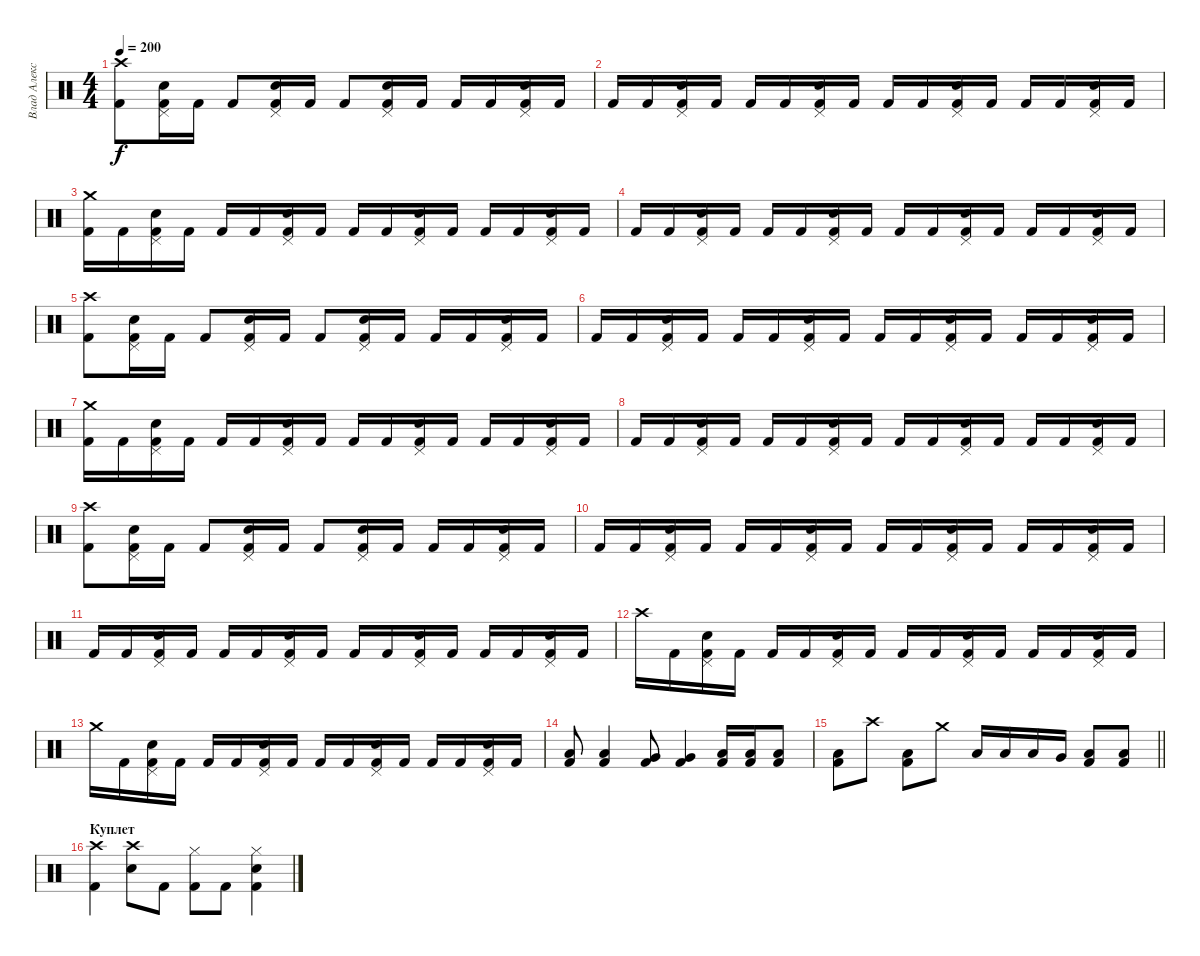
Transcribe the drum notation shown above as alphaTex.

\track ("Влад Алексеенко" "Влад Алекс") {instrument percussion}
\staff {score}
\articulation defaults
\ts (4 4)
\tempo 200
\clef neutral
\ks c
("Kick (hit) 2" "Crash high (hit)").8{dy f} ("Kick (hit) 2" "Electric Snare (hit)" "Pedal Hi-Hat (hit)").16 "Kick (hit) 2".16 "Kick (hit) 2".8 ("Kick (hit) 2" "Electric Snare (hit)" "Pedal Hi-Hat (hit)").16 "Kick (hit) 2".16 "Kick (hit) 2".8 ("Kick (hit) 2" "Electric Snare (hit)" "Pedal Hi-Hat (hit)").16 "Kick (hit) 2".16 "Kick (hit) 2".16 "Kick (hit) 2".16 ("Kick (hit) 2" "Electric Snare (hit)" "Pedal Hi-Hat (hit)").16 "Kick (hit) 2".16 |
"Kick (hit) 2".16 "Kick (hit) 2".16 ("Kick (hit) 2" "Electric Snare (hit)" "Pedal Hi-Hat (hit)").16 "Kick (hit) 2".16 "Kick (hit) 2".16 "Kick (hit) 2".16 ("Kick (hit) 2" "Electric Snare (hit)" "Pedal Hi-Hat (hit)").16 "Kick (hit) 2".16 "Kick (hit) 2".16 "Kick (hit) 2".16 ("Kick (hit) 2" "Electric Snare (hit)" "Pedal Hi-Hat (hit)").16 "Kick (hit) 2".16 "Kick (hit) 2".16 "Kick (hit) 2".16 ("Kick (hit) 2" "Electric Snare (hit)" "Pedal Hi-Hat (hit)").16 "Kick (hit) 2".16 |
("Kick (hit) 2" "Crash medium (hit)").16 "Kick (hit) 2".16 ("Kick (hit) 2" "Electric Snare (hit)" "Pedal Hi-Hat (hit)").16 "Kick (hit) 2".16 "Kick (hit) 2".16 "Kick (hit) 2".16 ("Kick (hit) 2" "Electric Snare (hit)" "Pedal Hi-Hat (hit)").16 "Kick (hit) 2".16 "Kick (hit) 2".16 "Kick (hit) 2".16 ("Kick (hit) 2" "Electric Snare (hit)" "Pedal Hi-Hat (hit)").16 "Kick (hit) 2".16 "Kick (hit) 2".16 "Kick (hit) 2".16 ("Kick (hit) 2" "Electric Snare (hit)" "Pedal Hi-Hat (hit)").16 "Kick (hit) 2".16 |
"Kick (hit) 2".16 "Kick (hit) 2".16 ("Kick (hit) 2" "Electric Snare (hit)" "Pedal Hi-Hat (hit)").16 "Kick (hit) 2".16 "Kick (hit) 2".16 "Kick (hit) 2".16 ("Kick (hit) 2" "Electric Snare (hit)" "Pedal Hi-Hat (hit)").16 "Kick (hit) 2".16 "Kick (hit) 2".16 "Kick (hit) 2".16 ("Kick (hit) 2" "Electric Snare (hit)" "Pedal Hi-Hat (hit)").16 "Kick (hit) 2".16 "Kick (hit) 2".16 "Kick (hit) 2".16 ("Kick (hit) 2" "Electric Snare (hit)" "Pedal Hi-Hat (hit)").16 "Kick (hit) 2".16 |
("Kick (hit) 2" "Crash high (hit)").8 ("Kick (hit) 2" "Electric Snare (hit)" "Pedal Hi-Hat (hit)").16 "Kick (hit) 2".16 "Kick (hit) 2".8 ("Kick (hit) 2" "Electric Snare (hit)" "Pedal Hi-Hat (hit)").16 "Kick (hit) 2".16 "Kick (hit) 2".8 ("Kick (hit) 2" "Electric Snare (hit)" "Pedal Hi-Hat (hit)").16 "Kick (hit) 2".16 "Kick (hit) 2".16 "Kick (hit) 2".16 ("Kick (hit) 2" "Electric Snare (hit)" "Pedal Hi-Hat (hit)").16 "Kick (hit) 2".16 |
"Kick (hit) 2".16 "Kick (hit) 2".16 ("Kick (hit) 2" "Electric Snare (hit)" "Pedal Hi-Hat (hit)").16 "Kick (hit) 2".16 "Kick (hit) 2".16 "Kick (hit) 2".16 ("Kick (hit) 2" "Electric Snare (hit)" "Pedal Hi-Hat (hit)").16 "Kick (hit) 2".16 "Kick (hit) 2".16 "Kick (hit) 2".16 ("Kick (hit) 2" "Electric Snare (hit)" "Pedal Hi-Hat (hit)").16 "Kick (hit) 2".16 "Kick (hit) 2".16 "Kick (hit) 2".16 ("Kick (hit) 2" "Electric Snare (hit)" "Pedal Hi-Hat (hit)").16 "Kick (hit) 2".16 |
("Kick (hit) 2" "Crash medium (hit)").16 "Kick (hit) 2".16 ("Kick (hit) 2" "Electric Snare (hit)" "Pedal Hi-Hat (hit)").16 "Kick (hit) 2".16 "Kick (hit) 2".16 "Kick (hit) 2".16 ("Kick (hit) 2" "Electric Snare (hit)" "Pedal Hi-Hat (hit)").16 "Kick (hit) 2".16 "Kick (hit) 2".16 "Kick (hit) 2".16 ("Kick (hit) 2" "Electric Snare (hit)" "Pedal Hi-Hat (hit)").16 "Kick (hit) 2".16 "Kick (hit) 2".16 "Kick (hit) 2".16 ("Kick (hit) 2" "Electric Snare (hit)" "Pedal Hi-Hat (hit)").16 "Kick (hit) 2".16 |
"Kick (hit) 2".16 "Kick (hit) 2".16 ("Kick (hit) 2" "Electric Snare (hit)" "Pedal Hi-Hat (hit)").16 "Kick (hit) 2".16 "Kick (hit) 2".16 "Kick (hit) 2".16 ("Kick (hit) 2" "Electric Snare (hit)" "Pedal Hi-Hat (hit)").16 "Kick (hit) 2".16 "Kick (hit) 2".16 "Kick (hit) 2".16 ("Kick (hit) 2" "Electric Snare (hit)" "Pedal Hi-Hat (hit)").16 "Kick (hit) 2".16 "Kick (hit) 2".16 "Kick (hit) 2".16 ("Kick (hit) 2" "Electric Snare (hit)" "Pedal Hi-Hat (hit)").16 "Kick (hit) 2".16 |
("Kick (hit) 2" "Crash high (hit)").8 ("Kick (hit) 2" "Electric Snare (hit)" "Pedal Hi-Hat (hit)").16 "Kick (hit) 2".16 "Kick (hit) 2".8 ("Kick (hit) 2" "Electric Snare (hit)" "Pedal Hi-Hat (hit)").16 "Kick (hit) 2".16 "Kick (hit) 2".8 ("Kick (hit) 2" "Electric Snare (hit)" "Pedal Hi-Hat (hit)").16 "Kick (hit) 2".16 "Kick (hit) 2".16 "Kick (hit) 2".16 ("Kick (hit) 2" "Electric Snare (hit)" "Pedal Hi-Hat (hit)").16 "Kick (hit) 2".16 |
"Kick (hit) 2".16 "Kick (hit) 2".16 ("Kick (hit) 2" "Electric Snare (hit)" "Pedal Hi-Hat (hit)").16 "Kick (hit) 2".16 "Kick (hit) 2".16 "Kick (hit) 2".16 ("Kick (hit) 2" "Electric Snare (hit)" "Pedal Hi-Hat (hit)").16 "Kick (hit) 2".16 "Kick (hit) 2".16 "Kick (hit) 2".16 ("Kick (hit) 2" "Electric Snare (hit)" "Pedal Hi-Hat (hit)").16 "Kick (hit) 2".16 "Kick (hit) 2".16 "Kick (hit) 2".16 ("Kick (hit) 2" "Electric Snare (hit)" "Pedal Hi-Hat (hit)").16 "Kick (hit) 2".16 |
"Kick (hit) 2".16 "Kick (hit) 2".16 ("Kick (hit) 2" "Electric Snare (hit)" "Pedal Hi-Hat (hit)").16 "Kick (hit) 2".16 "Kick (hit) 2".16 "Kick (hit) 2".16 ("Kick (hit) 2" "Electric Snare (hit)" "Pedal Hi-Hat (hit)").16 "Kick (hit) 2".16 "Kick (hit) 2".16 "Kick (hit) 2".16 ("Kick (hit) 2" "Electric Snare (hit)" "Pedal Hi-Hat (hit)").16 "Kick (hit) 2".16 "Kick (hit) 2".16 "Kick (hit) 2".16 ("Kick (hit) 2" "Electric Snare (hit)" "Pedal Hi-Hat (hit)").16 "Kick (hit) 2".16 |
"Crash high (hit)".16 "Kick (hit) 2".16 ("Kick (hit) 2" "Electric Snare (hit)" "Pedal Hi-Hat (hit)").16 "Kick (hit) 2".16 "Kick (hit) 2".16 "Kick (hit) 2".16 ("Kick (hit) 2" "Electric Snare (hit)" "Pedal Hi-Hat (hit)").16 "Kick (hit) 2".16 "Kick (hit) 2".16 "Kick (hit) 2".16 ("Kick (hit) 2" "Electric Snare (hit)" "Pedal Hi-Hat (hit)").16 "Kick (hit) 2".16 "Kick (hit) 2".16 "Kick (hit) 2".16 ("Kick (hit) 2" "Electric Snare (hit)" "Pedal Hi-Hat (hit)").16 "Kick (hit) 2".16 |
"Crash medium (hit)".16 "Kick (hit) 2".16 ("Kick (hit) 2" "Electric Snare (hit)" "Pedal Hi-Hat (hit)").16 "Kick (hit) 2".16 "Kick (hit) 2".16 "Kick (hit) 2".16 ("Kick (hit) 2" "Electric Snare (hit)" "Pedal Hi-Hat (hit)").16 "Kick (hit) 2".16 "Kick (hit) 2".16 "Kick (hit) 2".16 ("Kick (hit) 2" "Electric Snare (hit)" "Pedal Hi-Hat (hit)").16 "Kick (hit) 2".16 "Kick (hit) 2".16 "Kick (hit) 2".16 ("Kick (hit) 2" "Electric Snare (hit)" "Pedal Hi-Hat (hit)").16 "Kick (hit) 2".16 |
("Low Tom (hit)" "Kick (hit) 2").8 ("Low Tom (hit)" "Kick (hit) 2").4 ("Very Low Tom (hit)" "Kick (hit) 2").8 ("Very Low Tom (hit)" "Kick (hit) 2").4 ("Low Tom (hit)" "Kick (hit) 2").16 ("Low Tom (hit)" "Kick (hit) 2").16 ("Low Tom (hit)" "Kick (hit) 2").8 |
\barLineRight lightlight
("Low Tom (hit)" "Kick (hit) 2").8 "Crash high (hit)".8 ("Low Tom (hit)" "Kick (hit) 2").8 "Crash medium (hit)".8 "Low Tom (hit)".16 "Low Tom (hit)".16 "Low Tom (hit)".16 "Very Low Tom (hit)".16 ("Low Floor Tom (hit)" "Kick (hit) 2").8 ("Low Floor Tom (hit)" "Kick (hit) 2").8 |
\section ("" "Куплет")
("Crash high (hit)" "Kick (hit) 2").4 ("Crash high (hit)" "Electric Snare (hit)").8 "Kick (hit) 2".8 ("Hi-Hat (closed)" "Kick (hit) 2").8 "Kick (hit) 2".8 ("Hi-Hat (closed)" "Electric Snare (hit)" "Kick (hit) 2").4
